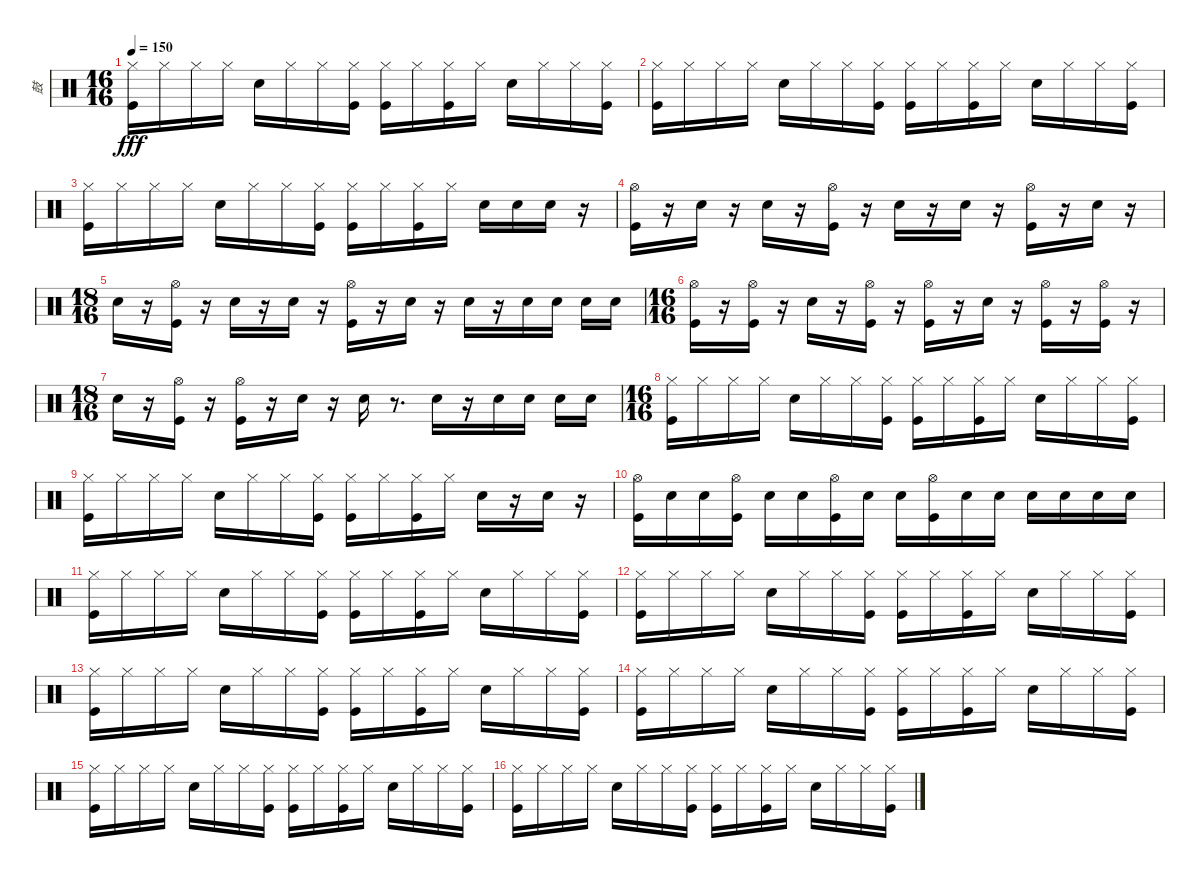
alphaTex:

\track ("鼓" "鼓") {instrument percussion}
\staff {score}
\articulation defaults
\ts (16 16)
\tempo 150
\clef neutral
\ks c
("Hi-Hat (closed)" "Kick (hit)").16{dy fff} "Hi-Hat (closed)".16 "Hi-Hat (closed)".16 "Hi-Hat (closed)".16 "Snare (hit) 2".16 "Hi-Hat (closed)".16 "Hi-Hat (closed)".16 ("Hi-Hat (closed)" "Kick (hit)").16 ("Hi-Hat (closed)" "Kick (hit)").16 "Hi-Hat (closed)".16 ("Hi-Hat (closed)" "Kick (hit)").16 "Hi-Hat (closed)".16 "Snare (hit) 2".16 "Hi-Hat (closed)".16 "Hi-Hat (closed)".16 ("Hi-Hat (closed)" "Kick (hit)").16 |
("Hi-Hat (closed)" "Kick (hit)").16 "Hi-Hat (closed)".16 "Hi-Hat (closed)".16 "Hi-Hat (closed)".16 "Snare (hit) 2".16 "Hi-Hat (closed)".16 "Hi-Hat (closed)".16 ("Hi-Hat (closed)" "Kick (hit)").16 ("Hi-Hat (closed)" "Kick (hit)").16 "Hi-Hat (closed)".16 ("Hi-Hat (closed)" "Kick (hit)").16 "Hi-Hat (closed)".16 "Snare (hit) 2".16 "Hi-Hat (closed)".16 "Hi-Hat (closed)".16 ("Hi-Hat (closed)" "Kick (hit)").16 |
("Hi-Hat (closed)" "Kick (hit)").16 "Hi-Hat (closed)".16 "Hi-Hat (closed)".16 "Hi-Hat (closed)".16 "Snare (hit) 2".16 "Hi-Hat (closed)".16 "Hi-Hat (closed)".16 ("Hi-Hat (closed)" "Kick (hit)").16 ("Hi-Hat (closed)" "Kick (hit)").16 "Hi-Hat (closed)".16 ("Hi-Hat (closed)" "Kick (hit)").16 "Hi-Hat (closed)".16 "Snare (hit) 2".16 "Snare (hit) 2".16 "Snare (hit) 2".16 r.16 |
("Kick (hit)" "Hi-Hat (open)").16 r.16 "Snare (hit) 2".16 r.16 "Snare (hit) 2".16 r.16 ("Kick (hit)" "Hi-Hat (open)").16 r.16 "Snare (hit) 2".16 r.16 "Snare (hit) 2".16 r.16 ("Kick (hit)" "Hi-Hat (open)").16 r.16 "Snare (hit) 2".16 r.16 |
\ts (18 16)
"Snare (hit) 2".16 r.16 ("Hi-Hat (open)" "Kick (hit)").16 r.16 "Snare (hit) 2".16 r.16 "Snare (hit) 2".16 r.16 ("Hi-Hat (open)" "Kick (hit)").16 r.16 "Snare (hit) 2".16 r.16 "Snare (hit) 2".16 r.16 "Snare (hit) 2".16 "Snare (hit) 2".16 "Snare (hit) 2".16 "Snare (hit) 2".16 |
\ts (16 16)
("Hi-Hat (open)" "Kick (hit)").16 r.16 ("Kick (hit)" "Hi-Hat (open)").16 r.16 "Snare (hit) 2".16 r.16 ("Hi-Hat (open)" "Kick (hit)").16 r.16 ("Hi-Hat (open)" "Kick (hit)").16 r.16 "Snare (hit) 2".16 r.16 ("Hi-Hat (open)" "Kick (hit)").16 r.16 ("Hi-Hat (open)" "Kick (hit)").16 r.16 |
\ts (18 16)
"Snare (hit) 2".16 r.16 ("Kick (hit)" "Hi-Hat (open)").16 r.16 ("Hi-Hat (open)" "Kick (hit)").16 r.16 "Snare (hit) 2".16 r.16 "Snare (hit) 2".16 r.8{d} "Snare (hit) 2".16 r.16 "Snare (hit) 2".16 "Snare (hit) 2".16 "Snare (hit) 2".16 "Snare (hit) 2".16 |
\ts (16 16)
("Kick (hit)" "Hi-Hat (closed)").16 "Hi-Hat (closed)".16 "Hi-Hat (closed)".16 "Hi-Hat (closed)".16 "Snare (hit) 2".16 "Hi-Hat (closed)".16 "Hi-Hat (closed)".16 ("Kick (hit)" "Hi-Hat (closed)").16 ("Kick (hit)" "Hi-Hat (closed)").16 "Hi-Hat (closed)".16 ("Kick (hit)" "Hi-Hat (closed)").16 "Hi-Hat (closed)".16 "Snare (hit) 2".16 "Hi-Hat (closed)".16 "Hi-Hat (closed)".16 ("Kick (hit)" "Hi-Hat (closed)").16 |
("Kick (hit)" "Hi-Hat (closed)").16 "Hi-Hat (closed)".16 "Hi-Hat (closed)".16 "Hi-Hat (closed)".16 "Snare (hit) 2".16 "Hi-Hat (closed)".16 "Hi-Hat (closed)".16 ("Kick (hit)" "Hi-Hat (closed)").16 ("Kick (hit)" "Hi-Hat (closed)").16 "Hi-Hat (closed)".16 ("Kick (hit)" "Hi-Hat (closed)").16 "Hi-Hat (closed)".16 "Snare (hit) 2".16 r.16 "Snare (hit) 2".16 r.16 |
("Kick (hit)" "Hi-Hat (open)").16 "Snare (hit) 2".16 "Snare (hit) 2".16 ("Kick (hit)" "Hi-Hat (open)").16 "Snare (hit) 2".16 "Snare (hit) 2".16 ("Kick (hit)" "Hi-Hat (open)").16 "Snare (hit) 2".16 "Snare (hit) 2".16 ("Kick (hit)" "Hi-Hat (open)").16 "Snare (hit) 2".16 "Snare (hit) 2".16 "Snare (hit) 2".16 "Snare (hit) 2".16 "Snare (hit) 2".16 "Snare (hit) 2".16 |
("Hi-Hat (closed)" "Kick (hit)").16 "Hi-Hat (closed)".16 "Hi-Hat (closed)".16 "Hi-Hat (closed)".16 "Snare (hit) 2".16 "Hi-Hat (closed)".16 "Hi-Hat (closed)".16 ("Hi-Hat (closed)" "Kick (hit)").16 ("Hi-Hat (closed)" "Kick (hit)").16 "Hi-Hat (closed)".16 ("Hi-Hat (closed)" "Kick (hit)").16 "Hi-Hat (closed)".16 "Snare (hit) 2".16 "Hi-Hat (closed)".16 "Hi-Hat (closed)".16 ("Hi-Hat (closed)" "Kick (hit)").16 |
("Hi-Hat (closed)" "Kick (hit)").16 "Hi-Hat (closed)".16 "Hi-Hat (closed)".16 "Hi-Hat (closed)".16 "Snare (hit) 2".16 "Hi-Hat (closed)".16 "Hi-Hat (closed)".16 ("Hi-Hat (closed)" "Kick (hit)").16 ("Hi-Hat (closed)" "Kick (hit)").16 "Hi-Hat (closed)".16 ("Hi-Hat (closed)" "Kick (hit)").16 "Hi-Hat (closed)".16 "Snare (hit) 2".16 "Hi-Hat (closed)".16 "Hi-Hat (closed)".16 ("Hi-Hat (closed)" "Kick (hit)").16 |
("Hi-Hat (closed)" "Kick (hit)").16 "Hi-Hat (closed)".16 "Hi-Hat (closed)".16 "Hi-Hat (closed)".16 "Snare (hit) 2".16 "Hi-Hat (closed)".16 "Hi-Hat (closed)".16 ("Hi-Hat (closed)" "Kick (hit)").16 ("Hi-Hat (closed)" "Kick (hit)").16 "Hi-Hat (closed)".16 ("Hi-Hat (closed)" "Kick (hit)").16 "Hi-Hat (closed)".16 "Snare (hit) 2".16 "Hi-Hat (closed)".16 "Hi-Hat (closed)".16 ("Hi-Hat (closed)" "Kick (hit)").16 |
("Hi-Hat (closed)" "Kick (hit)").16 "Hi-Hat (closed)".16 "Hi-Hat (closed)".16 "Hi-Hat (closed)".16 "Snare (hit) 2".16 "Hi-Hat (closed)".16 "Hi-Hat (closed)".16 ("Hi-Hat (closed)" "Kick (hit)").16 ("Hi-Hat (closed)" "Kick (hit)").16 "Hi-Hat (closed)".16 ("Hi-Hat (closed)" "Kick (hit)").16 "Hi-Hat (closed)".16 "Snare (hit) 2".16 "Hi-Hat (closed)".16 "Hi-Hat (closed)".16 ("Hi-Hat (closed)" "Kick (hit)").16 |
("Hi-Hat (closed)" "Kick (hit)").16 "Hi-Hat (closed)".16 "Hi-Hat (closed)".16 "Hi-Hat (closed)".16 "Snare (hit) 2".16 "Hi-Hat (closed)".16 "Hi-Hat (closed)".16 ("Hi-Hat (closed)" "Kick (hit)").16 ("Hi-Hat (closed)" "Kick (hit)").16 "Hi-Hat (closed)".16 ("Hi-Hat (closed)" "Kick (hit)").16 "Hi-Hat (closed)".16 "Snare (hit) 2".16 "Hi-Hat (closed)".16 "Hi-Hat (closed)".16 ("Hi-Hat (closed)" "Kick (hit)").16 |
("Hi-Hat (closed)" "Kick (hit)").16 "Hi-Hat (closed)".16 "Hi-Hat (closed)".16 "Hi-Hat (closed)".16 "Snare (hit) 2".16 "Hi-Hat (closed)".16 "Hi-Hat (closed)".16 ("Hi-Hat (closed)" "Kick (hit)").16 ("Hi-Hat (closed)" "Kick (hit)").16 "Hi-Hat (closed)".16 ("Hi-Hat (closed)" "Kick (hit)").16 "Hi-Hat (closed)".16 "Snare (hit) 2".16 "Hi-Hat (closed)".16 "Hi-Hat (closed)".16 ("Hi-Hat (closed)" "Kick (hit)").16
